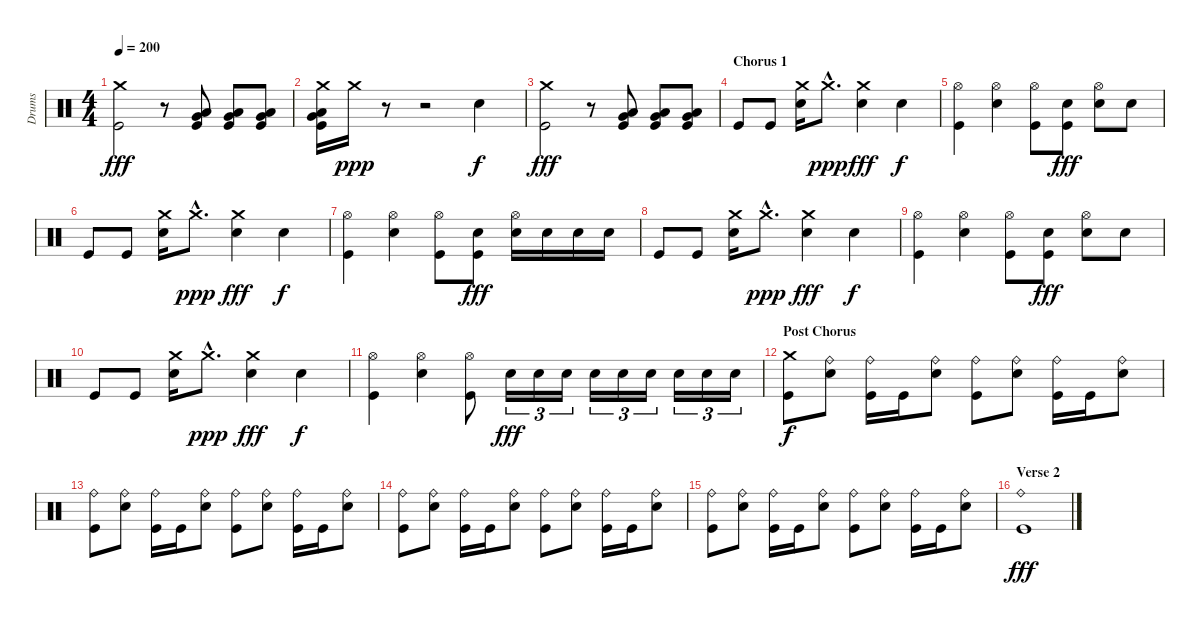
\track ("Drums" "Drums") {instrument percussion}
\staff {score}
\articulation defaults
\ts (4 4)
\tempo 200
\clef neutral
\ks c
("Crash medium (hit)" "Kick (hit)").2{dy fff} r.8 ("Low Tom (hit)" "Very Low Tom (hit)" "Kick (hit)").8 ("Low Tom (hit)" "Very Low Tom (hit)" "Kick (hit)").8 ("Low Tom (hit)" "Very Low Tom (hit)" "Kick (hit)").8 |
("Crash medium (hit)" "Low Tom (hit)" "Very Low Tom (hit)" "Kick (hit)").16 "Crash medium (hit)".16{dy ppp} r.8 r.2 "Electric Snare (hit)".4{dy f} |
("Crash medium (hit)" "Kick (hit)").2{dy fff} r.8 ("Low Tom (hit)" "Very Low Tom (hit)" "Kick (hit)").8 ("Low Tom (hit)" "Very Low Tom (hit)" "Kick (hit)").8 ("Low Tom (hit)" "Very Low Tom (hit)" "Kick (hit)").8 |
\section ("" "Chorus 1")
"Kick (hit)".8 "Kick (hit)".8 ("Crash medium (hit)" "Electric Snare (hit)").16 "Crash medium (hit)"{hac}.8{d dy ppp} ("Crash medium (hit)" "Electric Snare (hit)").4{dy fff} "Electric Snare (hit)".4{dy f} |
("Hi-Hat (open)" "Kick (hit)").4 ("Hi-Hat (open)" "Electric Snare (hit)").4 ("Hi-Hat (open)" "Kick (hit)").8 ("Electric Snare (hit)" "Kick (hit)").8{dy fff} ("Hi-Hat (open)" "Electric Snare (hit)").8 "Electric Snare (hit)".8 |
"Kick (hit)".8 "Kick (hit)".8 ("Crash medium (hit)" "Electric Snare (hit)").16 "Crash medium (hit)"{hac}.8{d dy ppp} ("Crash medium (hit)" "Electric Snare (hit)").4{dy fff} "Electric Snare (hit)".4{dy f} |
("Hi-Hat (open)" "Kick (hit)").4 ("Hi-Hat (open)" "Electric Snare (hit)").4 ("Hi-Hat (open)" "Kick (hit)").8 ("Electric Snare (hit)" "Kick (hit)").8{dy fff} ("Hi-Hat (open)" "Electric Snare (hit)").16 "Electric Snare (hit)".16 "Electric Snare (hit)".16 "Electric Snare (hit)".16 |
"Kick (hit)".8 "Kick (hit)".8 ("Crash medium (hit)" "Electric Snare (hit)").16 "Crash medium (hit)"{hac}.8{d dy ppp} ("Crash medium (hit)" "Electric Snare (hit)").4{dy fff} "Electric Snare (hit)".4{dy f} |
("Hi-Hat (open)" "Kick (hit)").4 ("Hi-Hat (open)" "Electric Snare (hit)").4 ("Hi-Hat (open)" "Kick (hit)").8 ("Electric Snare (hit)" "Kick (hit)").8{dy fff} ("Hi-Hat (open)" "Electric Snare (hit)").8 "Electric Snare (hit)".8 |
"Kick (hit)".8 "Kick (hit)".8 ("Crash medium (hit)" "Electric Snare (hit)").16 "Crash medium (hit)"{hac}.8{d dy ppp} ("Crash medium (hit)" "Electric Snare (hit)").4{dy fff} "Electric Snare (hit)".4{dy f} |
("Hi-Hat (open)" "Kick (hit)").4 ("Hi-Hat (open)" "Electric Snare (hit)").4 ("Hi-Hat (open)" "Kick (hit)").8 "Electric Snare (hit)".16{tu (3 2) dy fff} "Electric Snare (hit)".16{tu (3 2)} "Electric Snare (hit)".16{tu (3 2)} "Electric Snare (hit)".16{tu (3 2)} "Electric Snare (hit)".16{tu (3 2)} "Electric Snare (hit)".16{tu (3 2)} "Electric Snare (hit)".16{tu (3 2)} "Electric Snare (hit)".16{tu (3 2)} "Electric Snare (hit)".16{tu (3 2)} |
\section ("" "Post Chorus ")
("Crash medium (hit)" "Kick (hit)").8{dy f} ("Ride (bell)" "Electric Snare (hit)").8 ("Ride (bell)" "Kick (hit)").16 "Kick (hit)".16 ("Ride (bell)" "Electric Snare (hit)").8 ("Ride (bell)" "Kick (hit)").8 ("Ride (bell)" "Electric Snare (hit)").8 ("Ride (bell)" "Kick (hit)").16 "Kick (hit)".16 ("Ride (bell)" "Electric Snare (hit)").8 |
("Ride (bell)" "Kick (hit)").8 ("Ride (bell)" "Electric Snare (hit)").8 ("Ride (bell)" "Kick (hit)").16 "Kick (hit)".16 ("Ride (bell)" "Electric Snare (hit)").8 ("Ride (bell)" "Kick (hit)").8 ("Ride (bell)" "Electric Snare (hit)").8 ("Ride (bell)" "Kick (hit)").16 "Kick (hit)".16 ("Ride (bell)" "Electric Snare (hit)").8 |
("Ride (bell)" "Kick (hit)").8 ("Ride (bell)" "Electric Snare (hit)").8 ("Ride (bell)" "Kick (hit)").16 "Kick (hit)".16 ("Ride (bell)" "Electric Snare (hit)").8 ("Ride (bell)" "Kick (hit)").8 ("Ride (bell)" "Electric Snare (hit)").8 ("Ride (bell)" "Kick (hit)").16 "Kick (hit)".16 ("Ride (bell)" "Electric Snare (hit)").8 |
("Ride (bell)" "Kick (hit)").8 ("Ride (bell)" "Electric Snare (hit)").8 ("Ride (bell)" "Kick (hit)").16 "Kick (hit)".16 ("Ride (bell)" "Electric Snare (hit)").8 ("Ride (bell)" "Kick (hit)").8 ("Ride (bell)" "Electric Snare (hit)").8 ("Ride (bell)" "Kick (hit)").16 "Kick (hit)".16 ("Ride (bell)" "Electric Snare (hit)").8 |
\section ("" "Verse 2")
("Ride (bell)" "Kick (hit)").1{dy fff}
